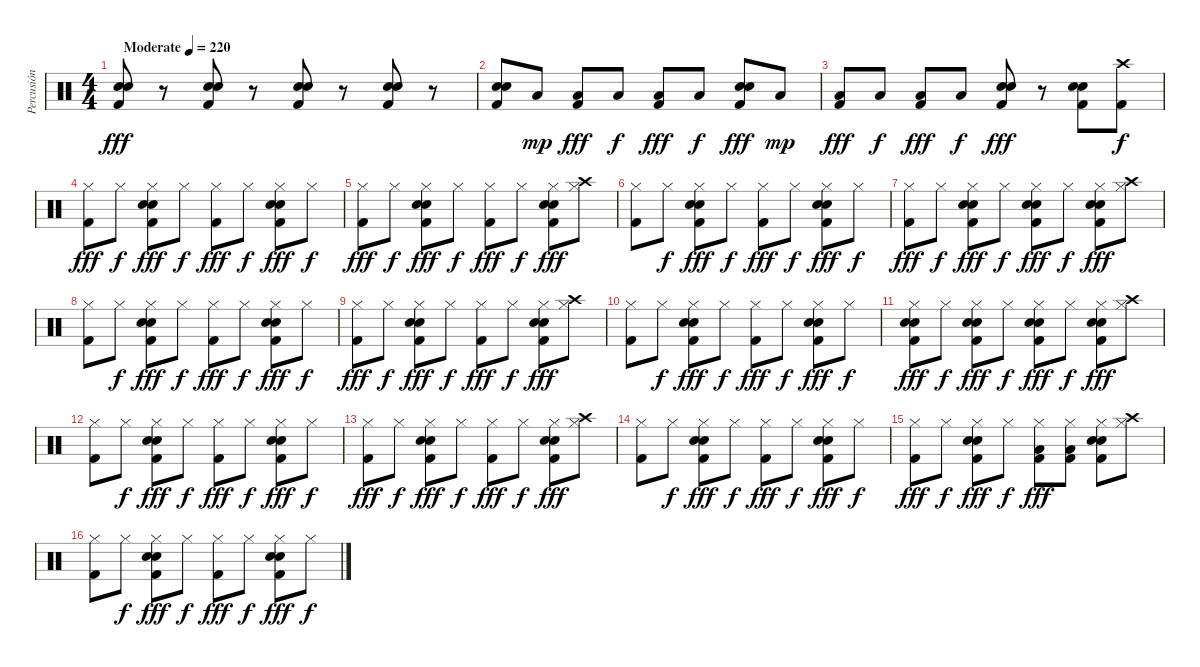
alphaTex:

\track ("Percusión" "Percusión") {instrument percussion}
\staff {score}
\articulation defaults
\ts (4 4)
\tempo (220 "Moderate")
\clef neutral
\ks c
("Electric Snare (hit)" "Snare (hit) 2" "Kick (hit) 2").8{dy fff} r.8 ("Electric Snare (hit)" "Snare (hit) 2" "Kick (hit) 2").8 r.8 ("Electric Snare (hit)" "Snare (hit) 2" "Kick (hit) 2").8 r.8 ("Electric Snare (hit)" "Snare (hit) 2" "Kick (hit) 2").8 r.8 |
("Electric Snare (hit)" "Snare (hit) 2" "Kick (hit) 2").8 "Low Tom (hit)".8{dy mp} ("Low Tom (hit)" "Kick (hit) 2").8{dy fff} "Low Tom (hit)".8{dy f} ("Low Tom (hit)" "Kick (hit) 2").8{dy fff} "Low Tom (hit)".8{dy f} ("Electric Snare (hit)" "Snare (hit) 2" "Kick (hit) 2").8{dy fff} "Low Tom (hit)".8{dy mp} |
("Low Tom (hit)" "Kick (hit) 2").8{dy fff} "Low Tom (hit)".8{dy f} ("Low Tom (hit)" "Kick (hit) 2").8{dy fff} "Low Tom (hit)".8{dy f} ("Electric Snare (hit)" "Snare (hit) 2" "Kick (hit) 2").8{dy fff} r.8 ("Electric Snare (hit)" "Snare (hit) 2" "Kick (hit) 2").8 ("Crash high (hit)" "Kick (hit) 2").8{dy f} |
("Hi-Hat (closed)" "Kick (hit) 2").8{dy fff} "Hi-Hat (closed)".8{dy f} ("Hi-Hat (closed)" "Electric Snare (hit)" "Snare (hit) 2" "Kick (hit) 2").8{dy fff} "Hi-Hat (closed)".8{dy f} ("Hi-Hat (closed)" "Kick (hit) 2").8{dy fff} "Hi-Hat (closed)".8{dy f} ("Hi-Hat (closed)" "Electric Snare (hit)" "Snare (hit) 2" "Kick (hit) 2").8{dy fff} "Hi-Hat (closed)".8{dy f} |
("Hi-Hat (closed)" "Kick (hit) 2").8{dy fff} "Hi-Hat (closed)".8{dy f} ("Hi-Hat (closed)" "Electric Snare (hit)" "Snare (hit) 2" "Kick (hit) 2").8{dy fff} "Hi-Hat (closed)".8{dy f} ("Hi-Hat (closed)" "Kick (hit) 2").8{dy fff} "Hi-Hat (closed)".8{dy f} ("Hi-Hat (closed)" "Electric Snare (hit)" "Snare (hit) 2" "Kick (hit) 2").8{dy fff} ("Crash high (hit)" "Hi-Hat (closed)").8 |
("Hi-Hat (closed)" "Kick (hit) 2").8 "Hi-Hat (closed)".8{dy f} ("Hi-Hat (closed)" "Electric Snare (hit)" "Snare (hit) 2" "Kick (hit) 2").8{dy fff} "Hi-Hat (closed)".8{dy f} ("Hi-Hat (closed)" "Kick (hit) 2").8{dy fff} "Hi-Hat (closed)".8{dy f} ("Hi-Hat (closed)" "Electric Snare (hit)" "Snare (hit) 2" "Kick (hit) 2").8{dy fff} "Hi-Hat (closed)".8{dy f} |
("Hi-Hat (closed)" "Kick (hit) 2").8{dy fff} "Hi-Hat (closed)".8{dy f} ("Hi-Hat (closed)" "Electric Snare (hit)" "Snare (hit) 2" "Kick (hit) 2").8{dy fff} "Hi-Hat (closed)".8{dy f} ("Hi-Hat (closed)" "Electric Snare (hit)" "Snare (hit) 2" "Kick (hit) 2").8{dy fff} "Hi-Hat (closed)".8{dy f} ("Hi-Hat (closed)" "Electric Snare (hit)" "Snare (hit) 2" "Kick (hit) 2").8{dy fff} ("Crash high (hit)" "Hi-Hat (closed)").8 |
("Hi-Hat (closed)" "Kick (hit) 2").8 "Hi-Hat (closed)".8{dy f} ("Hi-Hat (closed)" "Electric Snare (hit)" "Snare (hit) 2" "Kick (hit) 2").8{dy fff} "Hi-Hat (closed)".8{dy f} ("Hi-Hat (closed)" "Kick (hit) 2").8{dy fff} "Hi-Hat (closed)".8{dy f} ("Hi-Hat (closed)" "Electric Snare (hit)" "Snare (hit) 2" "Kick (hit) 2").8{dy fff} "Hi-Hat (closed)".8{dy f} |
("Hi-Hat (closed)" "Kick (hit) 2").8{dy fff} "Hi-Hat (closed)".8{dy f} ("Hi-Hat (closed)" "Electric Snare (hit)" "Snare (hit) 2" "Kick (hit) 2").8{dy fff} "Hi-Hat (closed)".8{dy f} ("Hi-Hat (closed)" "Kick (hit) 2").8{dy fff} "Hi-Hat (closed)".8{dy f} ("Hi-Hat (closed)" "Electric Snare (hit)" "Snare (hit) 2" "Kick (hit) 2").8{dy fff} ("Crash high (hit)" "Hi-Hat (closed)").8 |
("Hi-Hat (closed)" "Kick (hit) 2").8 "Hi-Hat (closed)".8{dy f} ("Hi-Hat (closed)" "Electric Snare (hit)" "Snare (hit) 2" "Kick (hit) 2").8{dy fff} "Hi-Hat (closed)".8{dy f} ("Hi-Hat (closed)" "Kick (hit) 2").8{dy fff} "Hi-Hat (closed)".8{dy f} ("Hi-Hat (closed)" "Electric Snare (hit)" "Snare (hit) 2" "Kick (hit) 2").8{dy fff} "Hi-Hat (closed)".8{dy f} |
("Hi-Hat (closed)" "Electric Snare (hit)" "Snare (hit) 2" "Kick (hit) 2").8{dy fff} "Hi-Hat (closed)".8{dy f} ("Hi-Hat (closed)" "Electric Snare (hit)" "Snare (hit) 2" "Kick (hit) 2").8{dy fff} "Hi-Hat (closed)".8{dy f} ("Hi-Hat (closed)" "Electric Snare (hit)" "Snare (hit) 2" "Kick (hit) 2").8{dy fff} "Hi-Hat (closed)".8{dy f} ("Hi-Hat (closed)" "Electric Snare (hit)" "Snare (hit) 2" "Kick (hit) 2").8{dy fff} ("Crash high (hit)" "Hi-Hat (closed)").8 |
("Hi-Hat (closed)" "Kick (hit) 2").8 "Hi-Hat (closed)".8{dy f} ("Hi-Hat (closed)" "Electric Snare (hit)" "Snare (hit) 2" "Kick (hit) 2").8{dy fff} "Hi-Hat (closed)".8{dy f} ("Hi-Hat (closed)" "Kick (hit) 2").8{dy fff} "Hi-Hat (closed)".8{dy f} ("Hi-Hat (closed)" "Electric Snare (hit)" "Snare (hit) 2" "Kick (hit) 2").8{dy fff} "Hi-Hat (closed)".8{dy f} |
("Hi-Hat (closed)" "Kick (hit) 2").8{dy fff} "Hi-Hat (closed)".8{dy f} ("Hi-Hat (closed)" "Electric Snare (hit)" "Snare (hit) 2" "Kick (hit) 2").8{dy fff} "Hi-Hat (closed)".8{dy f} ("Hi-Hat (closed)" "Kick (hit) 2").8{dy fff} "Hi-Hat (closed)".8{dy f} ("Hi-Hat (closed)" "Electric Snare (hit)" "Snare (hit) 2" "Kick (hit) 2").8{dy fff} ("Crash high (hit)" "Hi-Hat (closed)").8 |
("Hi-Hat (closed)" "Kick (hit) 2").8 "Hi-Hat (closed)".8{dy f} ("Hi-Hat (closed)" "Electric Snare (hit)" "Snare (hit) 2" "Kick (hit) 2").8{dy fff} "Hi-Hat (closed)".8{dy f} ("Hi-Hat (closed)" "Kick (hit) 2").8{dy fff} "Hi-Hat (closed)".8{dy f} ("Hi-Hat (closed)" "Electric Snare (hit)" "Snare (hit) 2" "Kick (hit) 2").8{dy fff} "Hi-Hat (closed)".8{dy f} |
("Hi-Hat (closed)" "Kick (hit) 2").8{dy fff} "Hi-Hat (closed)".8{dy f} ("Hi-Hat (closed)" "Electric Snare (hit)" "Snare (hit) 2" "Kick (hit) 2").8{dy fff} "Hi-Hat (closed)".8{dy f} ("Hi-Hat (closed)" "Low Tom (hit)" "Kick (hit) 2").8{dy fff} ("Hi-Hat (closed)" "Low Tom (hit)" "Kick (hit) 2").8 ("Hi-Hat (closed)" "Electric Snare (hit)" "Snare (hit) 2" "Kick (hit) 2").8 ("Crash high (hit)" "Hi-Hat (closed)").8 |
("Hi-Hat (closed)" "Kick (hit) 2").8 "Hi-Hat (closed)".8{dy f} ("Hi-Hat (closed)" "Electric Snare (hit)" "Snare (hit) 2" "Kick (hit) 2").8{dy fff} "Hi-Hat (closed)".8{dy f} ("Hi-Hat (closed)" "Kick (hit) 2").8{dy fff} "Hi-Hat (closed)".8{dy f} ("Hi-Hat (closed)" "Electric Snare (hit)" "Snare (hit) 2" "Kick (hit) 2").8{dy fff} "Hi-Hat (closed)".8{dy f}
